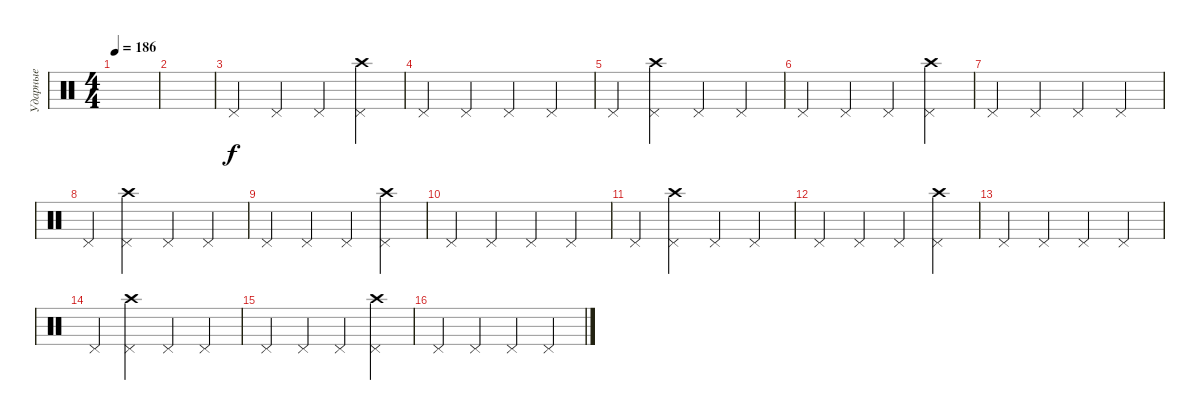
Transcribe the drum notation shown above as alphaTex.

\track ("Ударные" "Ударные") {instrument percussion}
\staff {score}
\articulation defaults
\ts (4 4)
\tempo 186
\clef neutral
\ks c
|
|
"Pedal Hi-Hat (hit)".4 "Pedal Hi-Hat (hit)".4 "Pedal Hi-Hat (hit)".4 ("Crash high (hit)" "Pedal Hi-Hat (hit)").4 |
"Pedal Hi-Hat (hit)".4 "Pedal Hi-Hat (hit)".4 "Pedal Hi-Hat (hit)".4 "Pedal Hi-Hat (hit)".4 |
"Pedal Hi-Hat (hit)".4 ("Pedal Hi-Hat (hit)" "Crash high (hit)").4 "Pedal Hi-Hat (hit)".4 "Pedal Hi-Hat (hit)".4 |
"Pedal Hi-Hat (hit)".4 "Pedal Hi-Hat (hit)".4 "Pedal Hi-Hat (hit)".4 ("Crash high (hit)" "Pedal Hi-Hat (hit)").4 |
"Pedal Hi-Hat (hit)".4 "Pedal Hi-Hat (hit)".4 "Pedal Hi-Hat (hit)".4 "Pedal Hi-Hat (hit)".4 |
"Pedal Hi-Hat (hit)".4 ("Pedal Hi-Hat (hit)" "Crash high (hit)").4 "Pedal Hi-Hat (hit)".4 "Pedal Hi-Hat (hit)".4 |
"Pedal Hi-Hat (hit)".4 "Pedal Hi-Hat (hit)".4 "Pedal Hi-Hat (hit)".4 ("Crash high (hit)" "Pedal Hi-Hat (hit)").4 |
"Pedal Hi-Hat (hit)".4 "Pedal Hi-Hat (hit)".4 "Pedal Hi-Hat (hit)".4 "Pedal Hi-Hat (hit)".4 |
"Pedal Hi-Hat (hit)".4 ("Pedal Hi-Hat (hit)" "Crash high (hit)").4 "Pedal Hi-Hat (hit)".4 "Pedal Hi-Hat (hit)".4 |
"Pedal Hi-Hat (hit)".4 "Pedal Hi-Hat (hit)".4 "Pedal Hi-Hat (hit)".4 ("Crash high (hit)" "Pedal Hi-Hat (hit)").4 |
"Pedal Hi-Hat (hit)".4 "Pedal Hi-Hat (hit)".4 "Pedal Hi-Hat (hit)".4 "Pedal Hi-Hat (hit)".4 |
"Pedal Hi-Hat (hit)".4 ("Pedal Hi-Hat (hit)" "Crash high (hit)").4 "Pedal Hi-Hat (hit)".4 "Pedal Hi-Hat (hit)".4 |
"Pedal Hi-Hat (hit)".4 "Pedal Hi-Hat (hit)".4 "Pedal Hi-Hat (hit)".4 ("Crash high (hit)" "Pedal Hi-Hat (hit)").4 |
"Pedal Hi-Hat (hit)".4 "Pedal Hi-Hat (hit)".4 "Pedal Hi-Hat (hit)".4 "Pedal Hi-Hat (hit)".4
